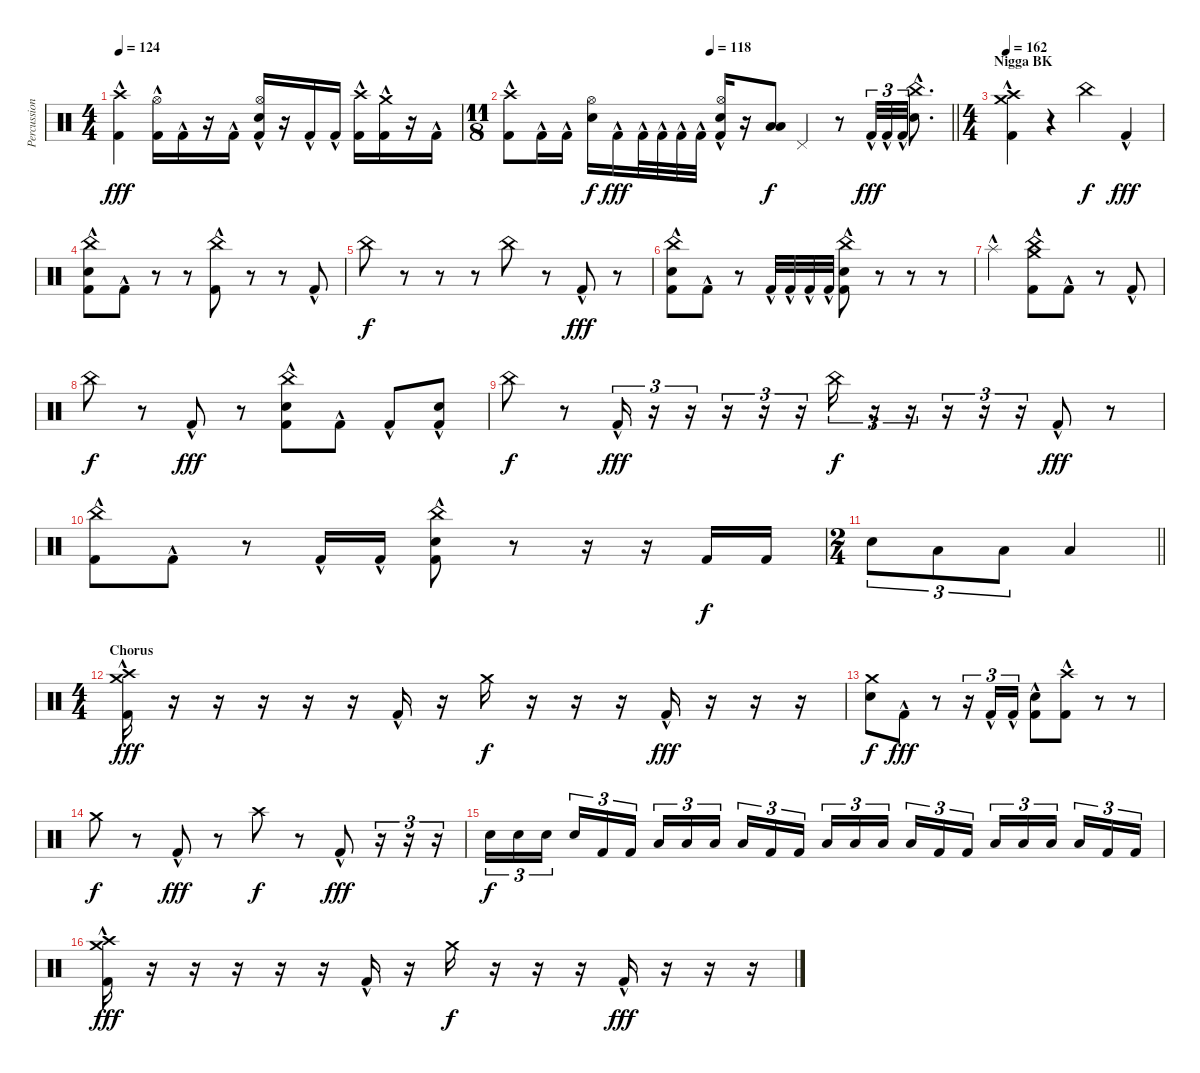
\track ("Percussion" "Percussion") {instrument percussion}
\staff {score}
\articulation defaults
\ts (4 4)
\tempo 124
\clef neutral
\ks c
("Crash high (hit)" "Kick (hit) 2"{hac}).4{dy fff} ("Hi-Hat (open)" "Kick (hit) 2"{hac}).16 "Kick (hit) 2"{hac}.16 r.16 "Kick (hit) 2"{hac}.16 ("Electric Snare (hit)" "Hi-Hat (open)" "Kick (hit) 2"{hac}).16 r.16 "Kick (hit) 2"{hac}.16 "Kick (hit) 2"{hac}.16 ("Crash high (hit)" "Kick (hit) 2"{hac}).16 ("Crash medium (hit)" "Kick (hit) 2"{hac}).16 r.16 "Kick (hit) 2"{hac}.16 |
\ts (11 8)
\tempo (118 0.45454545454545453)
\barLineRight lightlight
("Crash high (hit)" "Kick (hit) 2"{hac}).8 "Kick (hit) 2"{hac}.16 "Kick (hit) 2"{hac}.16 ("Hi-Hat (open)" "Electric Snare (hit)").16{dy f} "Kick (hit) 2"{hac}.16{dy fff} "Kick (hit) 2"{hac}.32 "Kick (hit) 2"{hac}.32 "Kick (hit) 2"{hac}.32 "Kick (hit) 2"{hac}.32 ("Hi-Hat (open)" "Electric Snare (hit)" "Kick (hit) 2"{hac}).16 r.16 ("Low Floor Tom (hit)" "Low Tom (hit)").8{dy f} "Pedal Hi-Hat (hit)".4 r.8 "Kick (hit) 2"{hac}.32{tu (3 2) dy fff} "Kick (hit) 2"{hac}.32{tu (3 2)} "Kick (hit) 2"{hac}.32{tu (3 2)} ("China (hit)"{hac} "Electric Snare (hit)").8{d} |
\ts (4 4)
\section ("" "Nigga BK")
\tempo 162
("Crash medium (hit)" "Crash high (hit)" "Kick (hit) 2"{hac}).4 r.4 "China (hit)".4{dy f} "Kick (hit) 2"{hac}.4{dy fff} |
("China (hit)" "Electric Snare (hit)" "Kick (hit) 2"{hac}).8 "Kick (hit) 2"{hac}.8 r.8 r.8 ("China (hit)" "Kick (hit) 2"{hac}).8 r.8 r.8 "Kick (hit) 2"{hac}.8 |
"China (hit)".8{dy f} r.8 r.8 r.8 "China (hit)".8 r.8 "Kick (hit) 2"{hac}.8{dy fff} r.8 |
("China (hit)" "Electric Snare (hit)" "Kick (hit) 2"{hac}).8 "Kick (hit) 2"{hac}.8 r.8 "Kick (hit) 2"{hac}.32 "Kick (hit) 2"{hac}.32 "Kick (hit) 2"{hac}.32 "Kick (hit) 2"{hac}.32 ("Electric Snare (hit)" "China (hit)" "Kick (hit) 2"{hac}).8 r.8{volume 0} r.8 r.8 |
"Splash (hit)"{hac}.2{volume 13} ("Crash medium (hit)" "China (hit)" "Kick (hit) 2"{hac}).8 "Kick (hit) 2"{hac}.8 r.8 "Kick (hit) 2"{hac}.8 |
"China (hit)".8{dy f} r.8 "Kick (hit) 2"{hac}.8{dy fff} r.8 ("Electric Snare (hit)" "China (hit)" "Kick (hit) 2"{hac}).8 "Kick (hit) 2"{hac}.8 "Kick (hit) 2"{hac}.8 ("Electric Snare (hit)" "Kick (hit) 2"{hac}).8 |
"China (hit)".8{dy f} r.8 "Kick (hit) 2"{hac}.16{tu (3 2) dy fff} r.16{tu (3 2)} r.16{tu (3 2)} r.16{tu (3 2)} r.16{tu (3 2)} r.16{tu (3 2)} "China (hit)".16{tu (3 2) dy f} r.16{tu (3 2)} r.16{tu (3 2)} r.16{tu (3 2)} r.16{tu (3 2)} r.16{tu (3 2)} "Kick (hit) 2"{hac}.8{dy fff} r.8 |
("China (hit)" "Kick (hit) 2"{hac}).8 "Kick (hit) 2"{hac}.8 r.8 "Kick (hit) 2"{hac}.16 "Kick (hit) 2"{hac}.16 ("China (hit)" "Electric Snare (hit)" "Kick (hit) 2"{hac}).8 r.8 r.16 r.16 "Kick (hit) 2".16{dy f} "Kick (hit) 2".16 |
\ts (2 4)
\barLineRight lightlight "Electric Snare (hit)".8{tu (3 2)} "Low Tom (hit)".8{tu (3 2)} "Low Tom (hit)".8{tu (3 2)} "Low Floor Tom (hit)".4
|
\ts (4 4)
\section ("" "Chorus")
("Kick (hit) 2"{hac} "Crash medium (hit)" "Crash high (hit)").16{dy fff} r.16 r.16 r.16 r.16 r.16 "Kick (hit) 2"{hac}.16 r.16 "Crash medium (hit)".16{dy f} r.16 r.16 r.16 "Kick (hit) 2"{hac}.16{dy fff} r.16 r.16 r.16 |
("Electric Snare (hit)" "Crash medium (hit)").8{dy f} "Kick (hit) 2"{hac}.8{dy fff} r.8 r.16{tu (3 2)} "Kick (hit) 2"{hac}.16{tu (3 2)} "Kick (hit) 2"{hac}.16{tu (3 2)} ("Kick (hit) 2"{hac} "Electric Snare (hit)").8 ("Kick (hit) 2"{hac} "Crash high (hit)").8 r.8 r.8 |
"Crash medium (hit)".8{dy f} r.8 "Kick (hit) 2"{hac}.8{dy fff} r.8 "Crash high (hit)".8{dy f} r.8 "Kick (hit) 2"{hac}.8{dy fff} r.16{tu (3 2)} r.16{tu (3 2)} r.16{tu (3 2)} |
"Electric Snare (hit)".16{tu (3 2) dy f} "Electric Snare (hit)".16{tu (3 2)} "Electric Snare (hit)".16{tu (3 2) beam splitsecondary} "Electric Snare (hit)".16{tu (3 2)} "Kick (hit) 2".16{tu (3 2)} "Kick (hit) 2".16{tu (3 2)} "Low Tom (hit)".16{tu (3 2)} "Low Tom (hit)".16{tu (3 2)} "Low Tom (hit)".16{tu (3 2) beam splitsecondary} "Low Tom (hit)".16{tu (3 2)} "Kick (hit) 2".16{tu (3 2)} "Kick (hit) 2".16{tu (3 2)} "Low Floor Tom (hit)".16{tu (3 2)} "Low Floor Tom (hit)".16{tu (3 2)} "Low Floor Tom (hit)".16{tu (3 2) beam splitsecondary} "Low Floor Tom (hit)".16{tu (3 2)} "Kick (hit) 2".16{tu (3 2)} "Kick (hit) 2".16{tu (3 2)} "Low Floor Tom (hit)".16{tu (3 2)} "Low Floor Tom (hit)".16{tu (3 2)} "Low Floor Tom (hit)".16{tu (3 2) beam splitsecondary} "Low Floor Tom (hit)".16{tu (3 2)} "Kick (hit) 2".16{tu (3 2)} "Kick (hit) 2".16{tu (3 2)} |
("Kick (hit) 2"{hac} "Crash medium (hit)" "Crash high (hit)").16{dy fff} r.16 r.16 r.16 r.16 r.16 "Kick (hit) 2"{hac}.16 r.16 "Crash medium (hit)".16{dy f} r.16 r.16 r.16 "Kick (hit) 2"{hac}.16{dy fff} r.16 r.16 r.16
